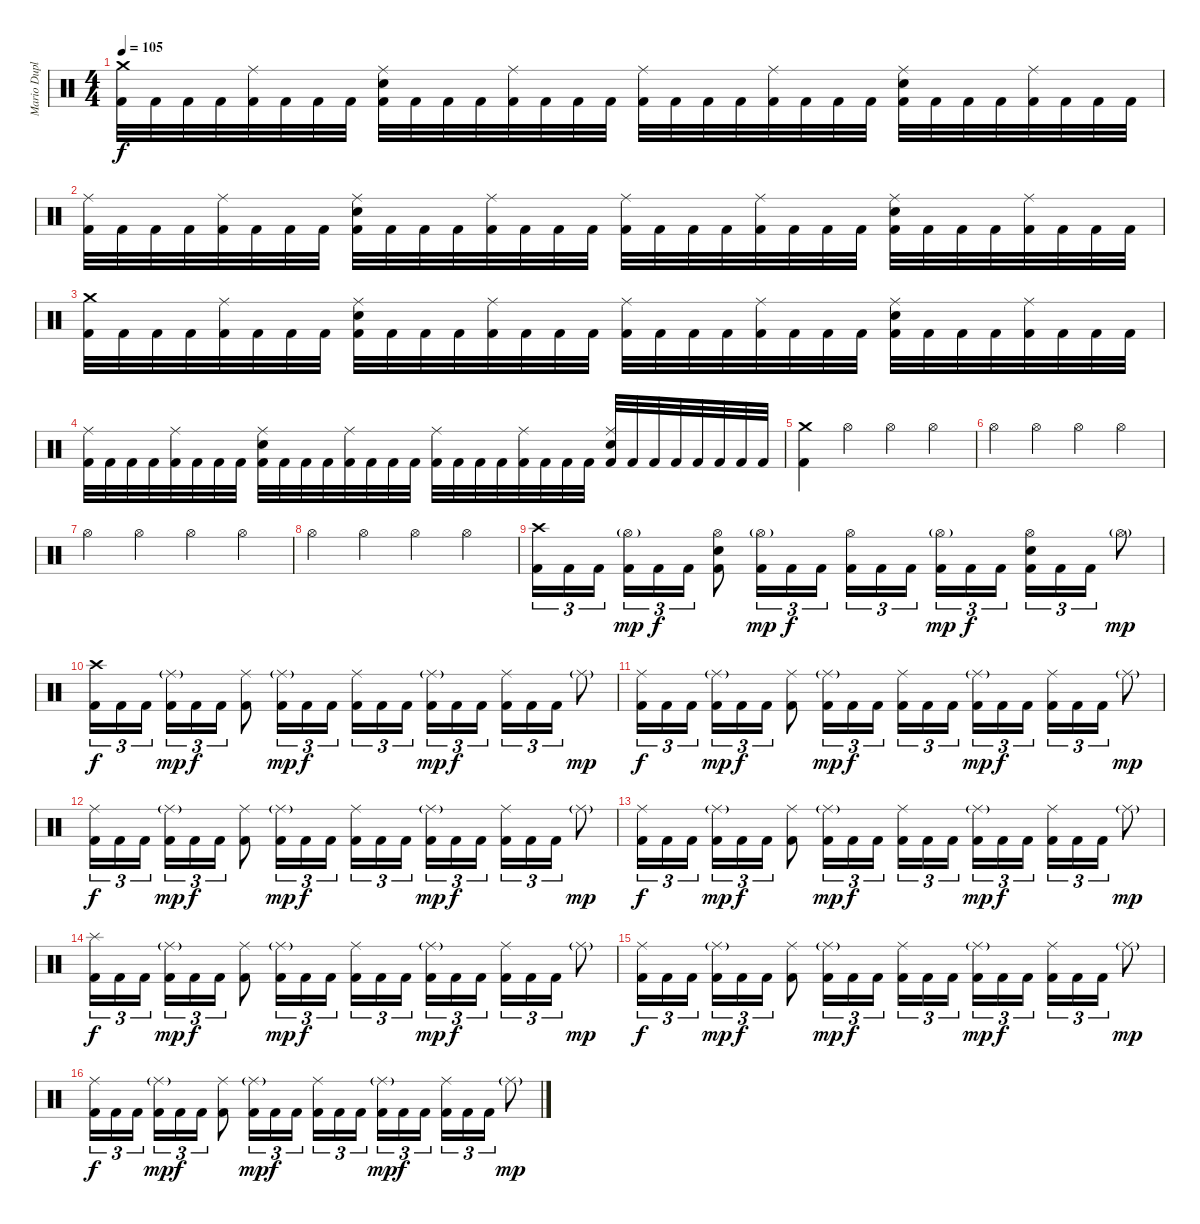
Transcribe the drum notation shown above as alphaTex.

\track ("Mario Duplantier" "Mario Dupl") {instrument percussion}
\staff {score}
\articulation defaults
\ts (4 4)
\tempo 105
\clef neutral
\ks c
("Crash medium (hit)" "Kick (hit) 2").32{dy f} "Kick (hit) 2".32 "Kick (hit) 2".32 "Kick (hit) 2".32 ("Ride (middle)" "Kick (hit) 2").32 "Kick (hit) 2".32 "Kick (hit) 2".32 "Kick (hit) 2".32 ("Ride (middle)" "Electric Snare (hit)" "Kick (hit) 2").32 "Kick (hit) 2".32 "Kick (hit) 2".32 "Kick (hit) 2".32 ("Ride (middle)" "Kick (hit) 2").32 "Kick (hit) 2".32 "Kick (hit) 2".32 "Kick (hit) 2".32 ("Ride (middle)" "Kick (hit) 2").32 "Kick (hit) 2".32 "Kick (hit) 2".32 "Kick (hit) 2".32 ("Ride (middle)" "Kick (hit) 2").32 "Kick (hit) 2".32 "Kick (hit) 2".32 "Kick (hit) 2".32 ("Ride (middle)" "Electric Snare (hit)" "Kick (hit) 2").32 "Kick (hit) 2".32 "Kick (hit) 2".32 "Kick (hit) 2".32 ("Ride (middle)" "Kick (hit) 2").32 "Kick (hit) 2".32 "Kick (hit) 2".32 "Kick (hit) 2".32 |
("Ride (middle)" "Kick (hit) 2").32 "Kick (hit) 2".32 "Kick (hit) 2".32 "Kick (hit) 2".32 ("Ride (middle)" "Kick (hit) 2").32 "Kick (hit) 2".32 "Kick (hit) 2".32 "Kick (hit) 2".32 ("Ride (middle)" "Electric Snare (hit)" "Kick (hit) 2").32 "Kick (hit) 2".32 "Kick (hit) 2".32 "Kick (hit) 2".32 ("Ride (middle)" "Kick (hit) 2").32 "Kick (hit) 2".32 "Kick (hit) 2".32 "Kick (hit) 2".32 ("Ride (middle)" "Kick (hit) 2").32 "Kick (hit) 2".32 "Kick (hit) 2".32 "Kick (hit) 2".32 ("Ride (middle)" "Kick (hit) 2").32 "Kick (hit) 2".32 "Kick (hit) 2".32 "Kick (hit) 2".32 ("Ride (middle)" "Electric Snare (hit)" "Kick (hit) 2").32 "Kick (hit) 2".32 "Kick (hit) 2".32 "Kick (hit) 2".32 ("Ride (middle)" "Kick (hit) 2").32 "Kick (hit) 2".32 "Kick (hit) 2".32 "Kick (hit) 2".32 |
("Crash medium (hit)" "Kick (hit) 2").32 "Kick (hit) 2".32 "Kick (hit) 2".32 "Kick (hit) 2".32 ("Ride (middle)" "Kick (hit) 2").32 "Kick (hit) 2".32 "Kick (hit) 2".32 "Kick (hit) 2".32 ("Ride (middle)" "Electric Snare (hit)" "Kick (hit) 2").32 "Kick (hit) 2".32 "Kick (hit) 2".32 "Kick (hit) 2".32 ("Ride (middle)" "Kick (hit) 2").32 "Kick (hit) 2".32 "Kick (hit) 2".32 "Kick (hit) 2".32 ("Ride (middle)" "Kick (hit) 2").32 "Kick (hit) 2".32 "Kick (hit) 2".32 "Kick (hit) 2".32 ("Ride (middle)" "Kick (hit) 2").32 "Kick (hit) 2".32 "Kick (hit) 2".32 "Kick (hit) 2".32 ("Ride (middle)" "Electric Snare (hit)" "Kick (hit) 2").32 "Kick (hit) 2".32 "Kick (hit) 2".32 "Kick (hit) 2".32 ("Ride (middle)" "Kick (hit) 2").32 "Kick (hit) 2".32 "Kick (hit) 2".32 "Kick (hit) 2".32 |
("Ride (middle)" "Kick (hit) 2").32 "Kick (hit) 2".32 "Kick (hit) 2".32 "Kick (hit) 2".32 ("Ride (middle)" "Kick (hit) 2").32 "Kick (hit) 2".32 "Kick (hit) 2".32 "Kick (hit) 2".32 ("Ride (middle)" "Electric Snare (hit)" "Kick (hit) 2").32 "Kick (hit) 2".32 "Kick (hit) 2".32 "Kick (hit) 2".32 ("Ride (middle)" "Kick (hit) 2").32 "Kick (hit) 2".32 "Kick (hit) 2".32 "Kick (hit) 2".32 ("Ride (middle)" "Kick (hit) 2").32 "Kick (hit) 2".32 "Kick (hit) 2".32 "Kick (hit) 2".32 ("Ride (middle)" "Kick (hit) 2").32 "Kick (hit) 2".32 "Kick (hit) 2".32 "Kick (hit) 2".32 ("Ride (middle)" "Electric Snare (hit)" "Kick (hit) 2").32 "Kick (hit) 2".32 "Kick (hit) 2".32 "Kick (hit) 2".32 "Kick (hit) 2".32 "Kick (hit) 2".32 "Kick (hit) 2".32 "Kick (hit) 2".32 |
("Crash medium (hit)" "Kick (hit) 2").4 "Hi-Hat (open)".4 "Hi-Hat (open)".4 "Hi-Hat (open)".4 |
"Hi-Hat (open)".4 "Hi-Hat (open)".4 "Hi-Hat (open)".4 "Hi-Hat (open)".4 |
"Hi-Hat (open)".4 "Hi-Hat (open)".4 "Hi-Hat (open)".4 "Hi-Hat (open)".4 |
"Hi-Hat (open)".4 "Hi-Hat (open)".4 "Hi-Hat (open)".4 "Hi-Hat (open)".4 |
("Crash high (hit)" "Kick (hit) 2").16{tu (3 2)} "Kick (hit) 2".16{tu (3 2)} "Kick (hit) 2".16{tu (3 2)} ("Hi-Hat (open)"{g} "Kick (hit) 2").16{tu (3 2) dy mp} "Kick (hit) 2".16{tu (3 2) dy f} "Kick (hit) 2".16{tu (3 2)} ("Hi-Hat (open)" "Electric Snare (hit)" "Kick (hit) 2").8 ("Hi-Hat (open)"{g} "Kick (hit) 2").16{tu (3 2) dy mp} "Kick (hit) 2".16{tu (3 2) dy f} "Kick (hit) 2".16{tu (3 2)} ("Hi-Hat (open)" "Kick (hit) 2").16{tu (3 2)} "Kick (hit) 2".16{tu (3 2)} "Kick (hit) 2".16{tu (3 2)} ("Hi-Hat (open)"{g} "Kick (hit) 2").16{tu (3 2) dy mp} "Kick (hit) 2".16{tu (3 2) dy f} "Kick (hit) 2".16{tu (3 2)} ("Hi-Hat (open)" "Electric Snare (hit)" "Kick (hit) 2").16{tu (3 2)} "Kick (hit) 2".16{tu (3 2)} "Kick (hit) 2".16{tu (3 2)} "Hi-Hat (open)"{g}.8{dy mp} |
("Crash high (hit)" "Kick (hit) 2").16{tu (3 2) dy f} "Kick (hit) 2".16{tu (3 2)} "Kick (hit) 2".16{tu (3 2)} ("Ride (middle)"{g} "Kick (hit) 2").16{tu (3 2) dy mp} "Kick (hit) 2".16{tu (3 2) dy f} "Kick (hit) 2".16{tu (3 2)} ("Ride (middle)" "Kick (hit) 2").8 ("Ride (middle)"{g} "Kick (hit) 2").16{tu (3 2) dy mp} "Kick (hit) 2".16{tu (3 2) dy f} "Kick (hit) 2".16{tu (3 2)} ("Ride (middle)" "Kick (hit) 2").16{tu (3 2)} "Kick (hit) 2".16{tu (3 2)} "Kick (hit) 2".16{tu (3 2)} ("Ride (middle)"{g} "Kick (hit) 2").16{tu (3 2) dy mp} "Kick (hit) 2".16{tu (3 2) dy f} "Kick (hit) 2".16{tu (3 2)} ("Ride (middle)" "Kick (hit) 2").16{tu (3 2)} "Kick (hit) 2".16{tu (3 2)} "Kick (hit) 2".16{tu (3 2)} "Ride (middle)"{g}.8{dy mp} |
("Ride (middle)" "Kick (hit) 2").16{tu (3 2) dy f} "Kick (hit) 2".16{tu (3 2)} "Kick (hit) 2".16{tu (3 2)} ("Ride (middle)"{g} "Kick (hit) 2").16{tu (3 2) dy mp} "Kick (hit) 2".16{tu (3 2) dy f} "Kick (hit) 2".16{tu (3 2)} ("Ride (middle)" "Kick (hit) 2").8 ("Ride (middle)"{g} "Kick (hit) 2").16{tu (3 2) dy mp} "Kick (hit) 2".16{tu (3 2) dy f} "Kick (hit) 2".16{tu (3 2)} ("Ride (middle)" "Kick (hit) 2").16{tu (3 2)} "Kick (hit) 2".16{tu (3 2)} "Kick (hit) 2".16{tu (3 2)} ("Ride (middle)"{g} "Kick (hit) 2").16{tu (3 2) dy mp} "Kick (hit) 2".16{tu (3 2) dy f} "Kick (hit) 2".16{tu (3 2)} ("Ride (middle)" "Kick (hit) 2").16{tu (3 2)} "Kick (hit) 2".16{tu (3 2)} "Kick (hit) 2".16{tu (3 2)} "Ride (middle)"{g}.8{dy mp} |
("Ride (middle)" "Kick (hit) 2").16{tu (3 2) dy f} "Kick (hit) 2".16{tu (3 2)} "Kick (hit) 2".16{tu (3 2)} ("Ride (middle)"{g} "Kick (hit) 2").16{tu (3 2) dy mp} "Kick (hit) 2".16{tu (3 2) dy f} "Kick (hit) 2".16{tu (3 2)} ("Ride (middle)" "Kick (hit) 2").8 ("Ride (middle)"{g} "Kick (hit) 2").16{tu (3 2) dy mp} "Kick (hit) 2".16{tu (3 2) dy f} "Kick (hit) 2".16{tu (3 2)} ("Ride (middle)" "Kick (hit) 2").16{tu (3 2)} "Kick (hit) 2".16{tu (3 2)} "Kick (hit) 2".16{tu (3 2)} ("Ride (middle)"{g} "Kick (hit) 2").16{tu (3 2) dy mp} "Kick (hit) 2".16{tu (3 2) dy f} "Kick (hit) 2".16{tu (3 2)} ("Ride (middle)" "Kick (hit) 2").16{tu (3 2)} "Kick (hit) 2".16{tu (3 2)} "Kick (hit) 2".16{tu (3 2)} "Ride (middle)"{g}.8{dy mp} |
("Ride (middle)" "Kick (hit) 2").16{tu (3 2) dy f} "Kick (hit) 2".16{tu (3 2)} "Kick (hit) 2".16{tu (3 2)} ("Ride (middle)"{g} "Kick (hit) 2").16{tu (3 2) dy mp} "Kick (hit) 2".16{tu (3 2) dy f} "Kick (hit) 2".16{tu (3 2)} ("Ride (middle)" "Kick (hit) 2").8 ("Ride (middle)"{g} "Kick (hit) 2").16{tu (3 2) dy mp} "Kick (hit) 2".16{tu (3 2) dy f} "Kick (hit) 2".16{tu (3 2)} ("Ride (middle)" "Kick (hit) 2").16{tu (3 2)} "Kick (hit) 2".16{tu (3 2)} "Kick (hit) 2".16{tu (3 2)} ("Ride (middle)"{g} "Kick (hit) 2").16{tu (3 2) dy mp} "Kick (hit) 2".16{tu (3 2) dy f} "Kick (hit) 2".16{tu (3 2)} ("Ride (middle)" "Kick (hit) 2").16{tu (3 2)} "Kick (hit) 2".16{tu (3 2)} "Kick (hit) 2".16{tu (3 2)} "Ride (middle)"{g}.8{dy mp} |
("Splash (hit)" "Kick (hit) 2").16{tu (3 2) dy f} "Kick (hit) 2".16{tu (3 2)} "Kick (hit) 2".16{tu (3 2)} ("Ride (middle)"{g} "Kick (hit) 2").16{tu (3 2) dy mp} "Kick (hit) 2".16{tu (3 2) dy f} "Kick (hit) 2".16{tu (3 2)} ("Ride (middle)" "Kick (hit) 2").8 ("Ride (middle)"{g} "Kick (hit) 2").16{tu (3 2) dy mp} "Kick (hit) 2".16{tu (3 2) dy f} "Kick (hit) 2".16{tu (3 2)} ("Ride (middle)" "Kick (hit) 2").16{tu (3 2)} "Kick (hit) 2".16{tu (3 2)} "Kick (hit) 2".16{tu (3 2)} ("Ride (middle)"{g} "Kick (hit) 2").16{tu (3 2) dy mp} "Kick (hit) 2".16{tu (3 2) dy f} "Kick (hit) 2".16{tu (3 2)} ("Ride (middle)" "Kick (hit) 2").16{tu (3 2)} "Kick (hit) 2".16{tu (3 2)} "Kick (hit) 2".16{tu (3 2)} "Ride (middle)"{g}.8{dy mp} |
("Ride (middle)" "Kick (hit) 2").16{tu (3 2) dy f} "Kick (hit) 2".16{tu (3 2)} "Kick (hit) 2".16{tu (3 2)} ("Ride (middle)"{g} "Kick (hit) 2").16{tu (3 2) dy mp} "Kick (hit) 2".16{tu (3 2) dy f} "Kick (hit) 2".16{tu (3 2)} ("Ride (middle)" "Kick (hit) 2").8 ("Ride (middle)"{g} "Kick (hit) 2").16{tu (3 2) dy mp} "Kick (hit) 2".16{tu (3 2) dy f} "Kick (hit) 2".16{tu (3 2)} ("Ride (middle)" "Kick (hit) 2").16{tu (3 2)} "Kick (hit) 2".16{tu (3 2)} "Kick (hit) 2".16{tu (3 2)} ("Ride (middle)"{g} "Kick (hit) 2").16{tu (3 2) dy mp} "Kick (hit) 2".16{tu (3 2) dy f} "Kick (hit) 2".16{tu (3 2)} ("Ride (middle)" "Kick (hit) 2").16{tu (3 2)} "Kick (hit) 2".16{tu (3 2)} "Kick (hit) 2".16{tu (3 2)} "Ride (middle)"{g}.8{dy mp} |
("Ride (middle)" "Kick (hit) 2").16{tu (3 2) dy f} "Kick (hit) 2".16{tu (3 2)} "Kick (hit) 2".16{tu (3 2)} ("Ride (middle)"{g} "Kick (hit) 2").16{tu (3 2) dy mp} "Kick (hit) 2".16{tu (3 2) dy f} "Kick (hit) 2".16{tu (3 2)} ("Ride (middle)" "Kick (hit) 2").8 ("Ride (middle)"{g} "Kick (hit) 2").16{tu (3 2) dy mp} "Kick (hit) 2".16{tu (3 2) dy f} "Kick (hit) 2".16{tu (3 2)} ("Ride (middle)" "Kick (hit) 2").16{tu (3 2)} "Kick (hit) 2".16{tu (3 2)} "Kick (hit) 2".16{tu (3 2)} ("Ride (middle)"{g} "Kick (hit) 2").16{tu (3 2) dy mp} "Kick (hit) 2".16{tu (3 2) dy f} "Kick (hit) 2".16{tu (3 2)} ("Ride (middle)" "Kick (hit) 2").16{tu (3 2)} "Kick (hit) 2".16{tu (3 2)} "Kick (hit) 2".16{tu (3 2)} "Ride (middle)"{g}.8{dy mp}
